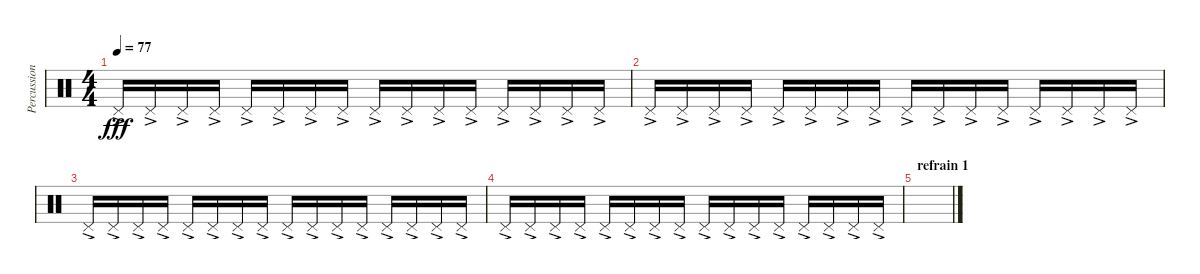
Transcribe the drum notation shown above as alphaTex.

\track ("Percussions (hit-hat)" "Percussion") {instrument percussion}
\staff {score}
\articulation defaults
\ts (4 4)
\tempo 77
\clef neutral
\ks c "Pedal Hi-Hat (hit)"{ac}.16{dy fff} "Pedal Hi-Hat (hit)"{ac}.16 "Pedal Hi-Hat (hit)"{ac}.16 "Pedal Hi-Hat (hit)"{ac}.16 "Pedal Hi-Hat (hit)"{ac}.16 "Pedal Hi-Hat (hit)"{ac}.16 "Pedal Hi-Hat (hit)"{ac}.16 "Pedal Hi-Hat (hit)"{ac}.16 "Pedal Hi-Hat (hit)"{ac}.16 "Pedal Hi-Hat (hit)"{ac}.16 "Pedal Hi-Hat (hit)"{ac}.16 "Pedal Hi-Hat (hit)"{ac}.16 "Pedal Hi-Hat (hit)"{ac}.16 "Pedal Hi-Hat (hit)"{ac}.16 "Pedal Hi-Hat (hit)"{ac}.16 "Pedal Hi-Hat (hit)"{ac}.16
|
"Pedal Hi-Hat (hit)"{ac}.16 "Pedal Hi-Hat (hit)"{ac}.16 "Pedal Hi-Hat (hit)"{ac}.16 "Pedal Hi-Hat (hit)"{ac}.16 "Pedal Hi-Hat (hit)"{ac}.16 "Pedal Hi-Hat (hit)"{ac}.16 "Pedal Hi-Hat (hit)"{ac}.16 "Pedal Hi-Hat (hit)"{ac}.16 "Pedal Hi-Hat (hit)"{ac}.16 "Pedal Hi-Hat (hit)"{ac}.16 "Pedal Hi-Hat (hit)"{ac}.16 "Pedal Hi-Hat (hit)"{ac}.16 "Pedal Hi-Hat (hit)"{ac}.16 "Pedal Hi-Hat (hit)"{ac}.16 "Pedal Hi-Hat (hit)"{ac}.16 "Pedal Hi-Hat (hit)"{ac}.16 |
"Pedal Hi-Hat (hit)"{ac}.16 "Pedal Hi-Hat (hit)"{ac}.16 "Pedal Hi-Hat (hit)"{ac}.16 "Pedal Hi-Hat (hit)"{ac}.16 "Pedal Hi-Hat (hit)"{ac}.16 "Pedal Hi-Hat (hit)"{ac}.16 "Pedal Hi-Hat (hit)"{ac}.16 "Pedal Hi-Hat (hit)"{ac}.16 "Pedal Hi-Hat (hit)"{ac}.16 "Pedal Hi-Hat (hit)"{ac}.16 "Pedal Hi-Hat (hit)"{ac}.16 "Pedal Hi-Hat (hit)"{ac}.16 "Pedal Hi-Hat (hit)"{ac}.16 "Pedal Hi-Hat (hit)"{ac}.16 "Pedal Hi-Hat (hit)"{ac}.16 "Pedal Hi-Hat (hit)"{ac}.16 |
"Pedal Hi-Hat (hit)"{ac}.16 "Pedal Hi-Hat (hit)"{ac}.16 "Pedal Hi-Hat (hit)"{ac}.16 "Pedal Hi-Hat (hit)"{ac}.16 "Pedal Hi-Hat (hit)"{ac}.16 "Pedal Hi-Hat (hit)"{ac}.16 "Pedal Hi-Hat (hit)"{ac}.16 "Pedal Hi-Hat (hit)"{ac}.16 "Pedal Hi-Hat (hit)"{ac}.16 "Pedal Hi-Hat (hit)"{ac}.16 "Pedal Hi-Hat (hit)"{ac}.16 "Pedal Hi-Hat (hit)"{ac}.16 "Pedal Hi-Hat (hit)"{ac}.16 "Pedal Hi-Hat (hit)"{ac}.16 "Pedal Hi-Hat (hit)"{ac}.16 "Pedal Hi-Hat (hit)"{ac}.16 |
\section ("" "refrain 1")
